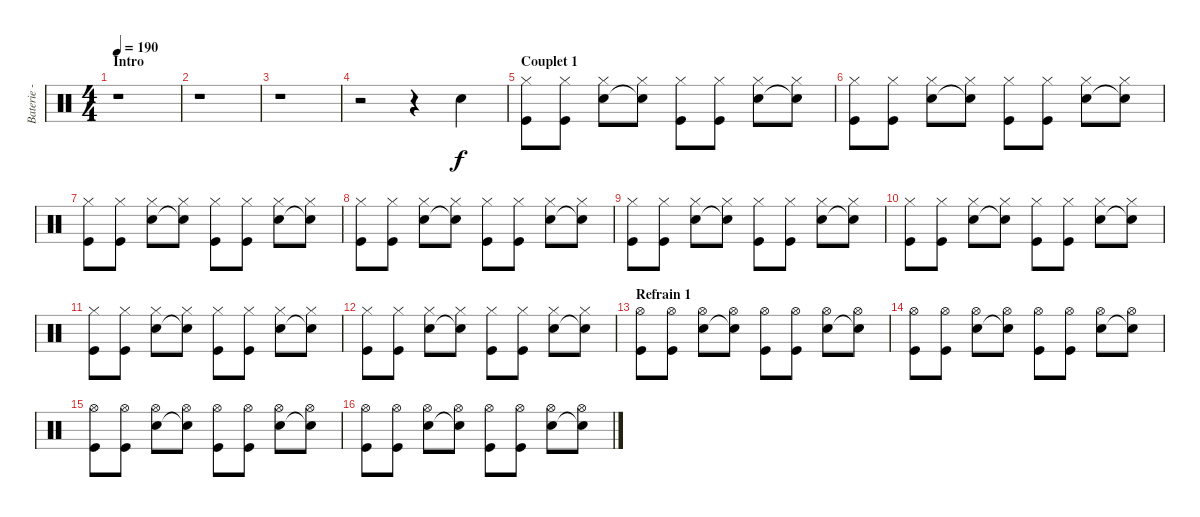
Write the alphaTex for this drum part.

\track ("Baterie - Guillaume" "Baterie - ") {instrument percussion}
\staff {score}
\articulation defaults
\ts (4 4)
\section ("" "Intro")
\tempo 190
\clef neutral
\ks c
r.1{dy f} |
r.1 |
r.1 |
r.2 r.4 "Electric Snare (hit)".4 |
\section ("" "Couplet 1")
("Hi-Hat (closed)" "Kick (hit)").8 ("Hi-Hat (closed)" "Kick (hit)").8 ("Hi-Hat (closed)" "Electric Snare (hit)").8 ("Hi-Hat (closed)" "Snare (hit)"{t}).8 ("Hi-Hat (closed)" "Kick (hit)").8 ("Hi-Hat (closed)" "Kick (hit)").8 ("Hi-Hat (closed)" "Electric Snare (hit)").8 ("Hi-Hat (closed)" "Snare (hit)"{t}).8 |
("Hi-Hat (closed)" "Kick (hit)").8 ("Hi-Hat (closed)" "Kick (hit)").8 ("Hi-Hat (closed)" "Electric Snare (hit)").8 ("Hi-Hat (closed)" "Snare (hit)"{t}).8 ("Hi-Hat (closed)" "Kick (hit)").8 ("Hi-Hat (closed)" "Kick (hit)").8 ("Hi-Hat (closed)" "Electric Snare (hit)").8 ("Hi-Hat (closed)" "Snare (hit)"{t}).8 |
("Hi-Hat (closed)" "Kick (hit)").8 ("Hi-Hat (closed)" "Kick (hit)").8 ("Hi-Hat (closed)" "Electric Snare (hit)").8 ("Hi-Hat (closed)" "Snare (hit)"{t}).8 ("Hi-Hat (closed)" "Kick (hit)").8 ("Hi-Hat (closed)" "Kick (hit)").8 ("Hi-Hat (closed)" "Electric Snare (hit)").8 ("Hi-Hat (closed)" "Snare (hit)"{t}).8 |
("Hi-Hat (closed)" "Kick (hit)").8 ("Hi-Hat (closed)" "Kick (hit)").8 ("Hi-Hat (closed)" "Electric Snare (hit)").8 ("Hi-Hat (closed)" "Snare (hit)"{t}).8 ("Hi-Hat (closed)" "Kick (hit)").8 ("Hi-Hat (closed)" "Kick (hit)").8 ("Hi-Hat (closed)" "Electric Snare (hit)").8 ("Hi-Hat (closed)" "Snare (hit)"{t}).8 |
("Hi-Hat (closed)" "Kick (hit)").8 ("Hi-Hat (closed)" "Kick (hit)").8 ("Hi-Hat (closed)" "Electric Snare (hit)").8 ("Hi-Hat (closed)" "Snare (hit)"{t}).8 ("Hi-Hat (closed)" "Kick (hit)").8 ("Hi-Hat (closed)" "Kick (hit)").8 ("Hi-Hat (closed)" "Electric Snare (hit)").8 ("Hi-Hat (closed)" "Snare (hit)"{t}).8 |
("Hi-Hat (closed)" "Kick (hit)").8 ("Hi-Hat (closed)" "Kick (hit)").8 ("Hi-Hat (closed)" "Electric Snare (hit)").8 ("Hi-Hat (closed)" "Snare (hit)"{t}).8 ("Hi-Hat (closed)" "Kick (hit)").8 ("Hi-Hat (closed)" "Kick (hit)").8 ("Hi-Hat (closed)" "Electric Snare (hit)").8 ("Hi-Hat (closed)" "Snare (hit)"{t}).8 |
("Hi-Hat (closed)" "Kick (hit)").8 ("Hi-Hat (closed)" "Kick (hit)").8 ("Hi-Hat (closed)" "Electric Snare (hit)").8 ("Hi-Hat (closed)" "Snare (hit)"{t}).8 ("Hi-Hat (closed)" "Kick (hit)").8 ("Hi-Hat (closed)" "Kick (hit)").8 ("Hi-Hat (closed)" "Electric Snare (hit)").8 ("Hi-Hat (closed)" "Snare (hit)"{t}).8 |
("Hi-Hat (closed)" "Kick (hit)").8 ("Hi-Hat (closed)" "Kick (hit)").8 ("Hi-Hat (closed)" "Electric Snare (hit)").8 ("Hi-Hat (closed)" "Snare (hit)"{t}).8 ("Hi-Hat (closed)" "Kick (hit)").8 ("Hi-Hat (closed)" "Kick (hit)").8 ("Hi-Hat (closed)" "Electric Snare (hit)").8 ("Hi-Hat (closed)" "Snare (hit)"{t}).8 |
\section ("" "Refrain 1")
("Hi-Hat (open)" "Kick (hit)").8 ("Hi-Hat (open)" "Kick (hit)").8 ("Hi-Hat (open)" "Electric Snare (hit)").8 ("Hi-Hat (open)" "Snare (hit)"{t}).8 ("Hi-Hat (open)" "Kick (hit)").8 ("Hi-Hat (open)" "Kick (hit)").8 ("Hi-Hat (open)" "Electric Snare (hit)").8 ("Hi-Hat (open)" "Snare (hit)"{t}).8 |
("Hi-Hat (open)" "Kick (hit)").8 ("Hi-Hat (open)" "Kick (hit)").8 ("Hi-Hat (open)" "Electric Snare (hit)").8 ("Hi-Hat (open)" "Snare (hit)"{t}).8 ("Hi-Hat (open)" "Kick (hit)").8 ("Hi-Hat (open)" "Kick (hit)").8 ("Hi-Hat (open)" "Electric Snare (hit)").8 ("Hi-Hat (open)" "Snare (hit)"{t}).8 |
("Hi-Hat (open)" "Kick (hit)").8 ("Hi-Hat (open)" "Kick (hit)").8 ("Hi-Hat (open)" "Electric Snare (hit)").8 ("Hi-Hat (open)" "Snare (hit)"{t}).8 ("Hi-Hat (open)" "Kick (hit)").8 ("Hi-Hat (open)" "Kick (hit)").8 ("Hi-Hat (open)" "Electric Snare (hit)").8 ("Hi-Hat (open)" "Snare (hit)"{t}).8 |
("Hi-Hat (open)" "Kick (hit)").8 ("Hi-Hat (open)" "Kick (hit)").8 ("Hi-Hat (open)" "Electric Snare (hit)").8 ("Hi-Hat (open)" "Snare (hit)"{t}).8 ("Hi-Hat (open)" "Kick (hit)").8 ("Hi-Hat (open)" "Kick (hit)").8 ("Hi-Hat (open)" "Electric Snare (hit)").8 ("Hi-Hat (open)" "Snare (hit)"{t}).8
